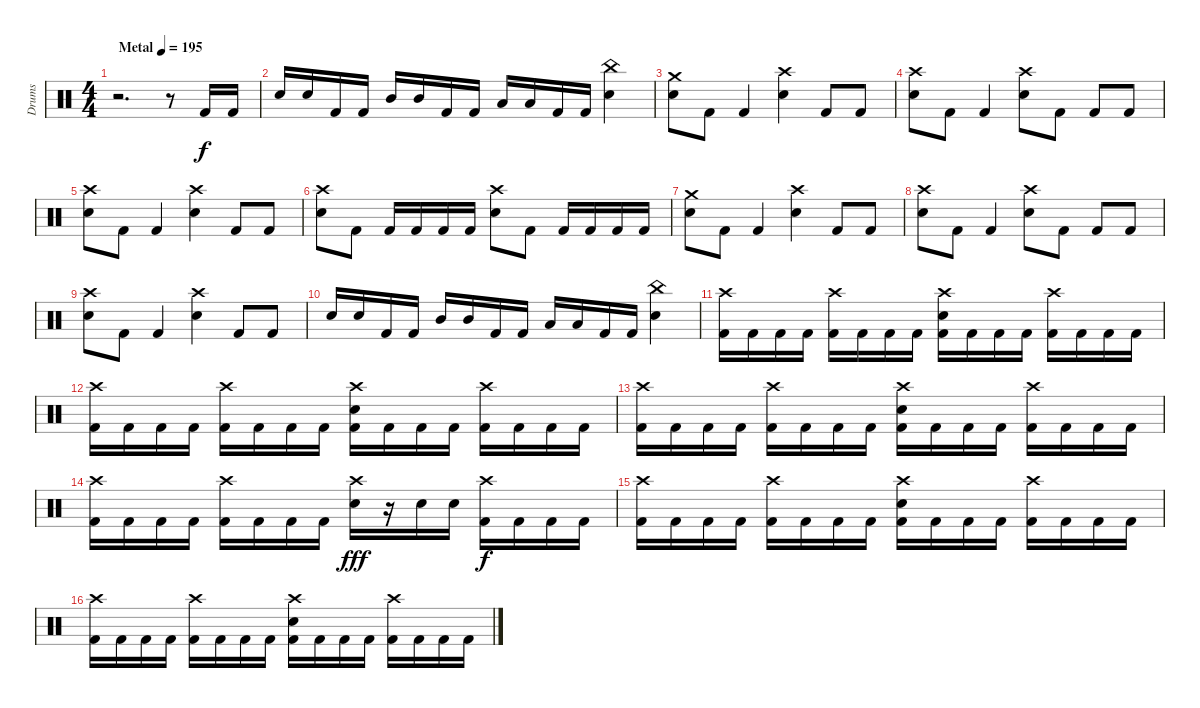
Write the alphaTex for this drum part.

\track ("Drums" "Drums") {instrument percussion}
\staff {score}
\articulation defaults
\ts (4 4)
\tempo (195 "Metal")
\clef neutral
\ks c
r.2{d dy f} r.8 "Kick (hit) 2".16 "Kick (hit) 2".16 |
"Snare (hit) 2".16 "Snare (hit) 2".16 "Kick (hit) 2".16 "Kick (hit) 2".16 "Mid Tom (hit)".16 "Mid Tom (hit)".16 "Kick (hit) 2".16 "Kick (hit) 2".16 "Low Tom (hit)".16 "Low Tom (hit)".16 "Kick (hit) 2".16 "Kick (hit) 2".16 ("China (hit)" "Snare (hit) 2").4 |
("Crash medium (hit)" "Snare (hit) 2").8 "Kick (hit) 2".8 "Kick (hit) 2".4 ("Crash high (hit)" "Snare (hit) 2").4 "Kick (hit) 2".8 "Kick (hit) 2".8 |
("Crash high (hit)" "Snare (hit) 2").8 "Kick (hit) 2".8 "Kick (hit) 2".4 ("Crash high (hit)" "Snare (hit) 2").8 "Kick (hit) 2".8 "Kick (hit) 2".8 "Kick (hit) 2".8 |
("Crash high (hit)" "Snare (hit) 2").8 "Kick (hit) 2".8 "Kick (hit) 2".4 ("Crash high (hit)" "Snare (hit) 2").4 "Kick (hit) 2".8 "Kick (hit) 2".8 |
("Crash high (hit)" "Snare (hit) 2").8 "Kick (hit) 2".8 "Kick (hit) 2".16 "Kick (hit) 2".16 "Kick (hit) 2".16 "Kick (hit) 2".16 ("Crash high (hit)" "Snare (hit) 2").8 "Kick (hit) 2".8 "Kick (hit) 2".16 "Kick (hit) 2".16 "Kick (hit) 2".16 "Kick (hit) 2".16 |
("Crash medium (hit)" "Snare (hit) 2").8 "Kick (hit) 2".8 "Kick (hit) 2".4 ("Crash high (hit)" "Snare (hit) 2").4 "Kick (hit) 2".8 "Kick (hit) 2".8 |
("Crash high (hit)" "Snare (hit) 2").8 "Kick (hit) 2".8 "Kick (hit) 2".4 ("Crash high (hit)" "Snare (hit) 2").8 "Kick (hit) 2".8 "Kick (hit) 2".8 "Kick (hit) 2".8 |
("Crash high (hit)" "Snare (hit) 2").8 "Kick (hit) 2".8 "Kick (hit) 2".4 ("Crash high (hit)" "Snare (hit) 2").4 "Kick (hit) 2".8 "Kick (hit) 2".8 |
"Snare (hit) 2".16 "Snare (hit) 2".16 "Kick (hit) 2".16 "Kick (hit) 2".16 "Mid Tom (hit)".16 "Mid Tom (hit)".16 "Kick (hit) 2".16 "Kick (hit) 2".16 "Low Tom (hit)".16 "Low Tom (hit)".16 "Kick (hit) 2".16 "Kick (hit) 2".16 ("China (hit)" "Snare (hit) 2").4 |
("Crash high (hit)" "Kick (hit) 2").16 "Kick (hit) 2".16 "Kick (hit) 2".16 "Kick (hit) 2".16 ("Crash high (hit)" "Kick (hit) 2").16 "Kick (hit) 2".16 "Kick (hit) 2".16 "Kick (hit) 2".16 ("Crash high (hit)" "Snare (hit) 2" "Kick (hit) 2").16 "Kick (hit) 2".16 "Kick (hit) 2".16 "Kick (hit) 2".16 ("Crash high (hit)" "Kick (hit) 2").16 "Kick (hit) 2".16 "Kick (hit) 2".16 "Kick (hit) 2".16 |
("Crash high (hit)" "Kick (hit) 2").16 "Kick (hit) 2".16 "Kick (hit) 2".16 "Kick (hit) 2".16 ("Crash high (hit)" "Kick (hit) 2").16 "Kick (hit) 2".16 "Kick (hit) 2".16 "Kick (hit) 2".16 ("Crash high (hit)" "Snare (hit) 2" "Kick (hit) 2").16 "Kick (hit) 2".16 "Kick (hit) 2".16 "Kick (hit) 2".16 ("Crash high (hit)" "Kick (hit) 2").16 "Kick (hit) 2".16 "Kick (hit) 2".16 "Kick (hit) 2".16 |
("Crash high (hit)" "Kick (hit) 2").16 "Kick (hit) 2".16 "Kick (hit) 2".16 "Kick (hit) 2".16 ("Crash high (hit)" "Kick (hit) 2").16 "Kick (hit) 2".16 "Kick (hit) 2".16 "Kick (hit) 2".16 ("Crash high (hit)" "Snare (hit) 2" "Kick (hit) 2").16 "Kick (hit) 2".16 "Kick (hit) 2".16 "Kick (hit) 2".16 ("Crash high (hit)" "Kick (hit) 2").16 "Kick (hit) 2".16 "Kick (hit) 2".16 "Kick (hit) 2".16 |
("Crash high (hit)" "Kick (hit) 2").16 "Kick (hit) 2".16 "Kick (hit) 2".16 "Kick (hit) 2".16 ("Crash high (hit)" "Kick (hit) 2").16 "Kick (hit) 2".16 "Kick (hit) 2".16 "Kick (hit) 2".16 ("Crash high (hit)" "Snare (hit) 2").16{dy fff} r.16 "Snare (hit) 2".16 "Snare (hit) 2".16 ("Crash high (hit)" "Kick (hit) 2").16{dy f} "Kick (hit) 2".16 "Kick (hit) 2".16 "Kick (hit) 2".16 |
("Crash high (hit)" "Kick (hit) 2").16 "Kick (hit) 2".16 "Kick (hit) 2".16 "Kick (hit) 2".16 ("Crash high (hit)" "Kick (hit) 2").16 "Kick (hit) 2".16 "Kick (hit) 2".16 "Kick (hit) 2".16 ("Crash high (hit)" "Snare (hit) 2" "Kick (hit) 2").16 "Kick (hit) 2".16 "Kick (hit) 2".16 "Kick (hit) 2".16 ("Crash high (hit)" "Kick (hit) 2").16 "Kick (hit) 2".16 "Kick (hit) 2".16 "Kick (hit) 2".16 |
("Crash high (hit)" "Kick (hit) 2").16 "Kick (hit) 2".16 "Kick (hit) 2".16 "Kick (hit) 2".16 ("Crash high (hit)" "Kick (hit) 2").16 "Kick (hit) 2".16 "Kick (hit) 2".16 "Kick (hit) 2".16 ("Crash high (hit)" "Snare (hit) 2" "Kick (hit) 2").16 "Kick (hit) 2".16 "Kick (hit) 2".16 "Kick (hit) 2".16 ("Crash high (hit)" "Kick (hit) 2").16 "Kick (hit) 2".16 "Kick (hit) 2".16 "Kick (hit) 2".16
